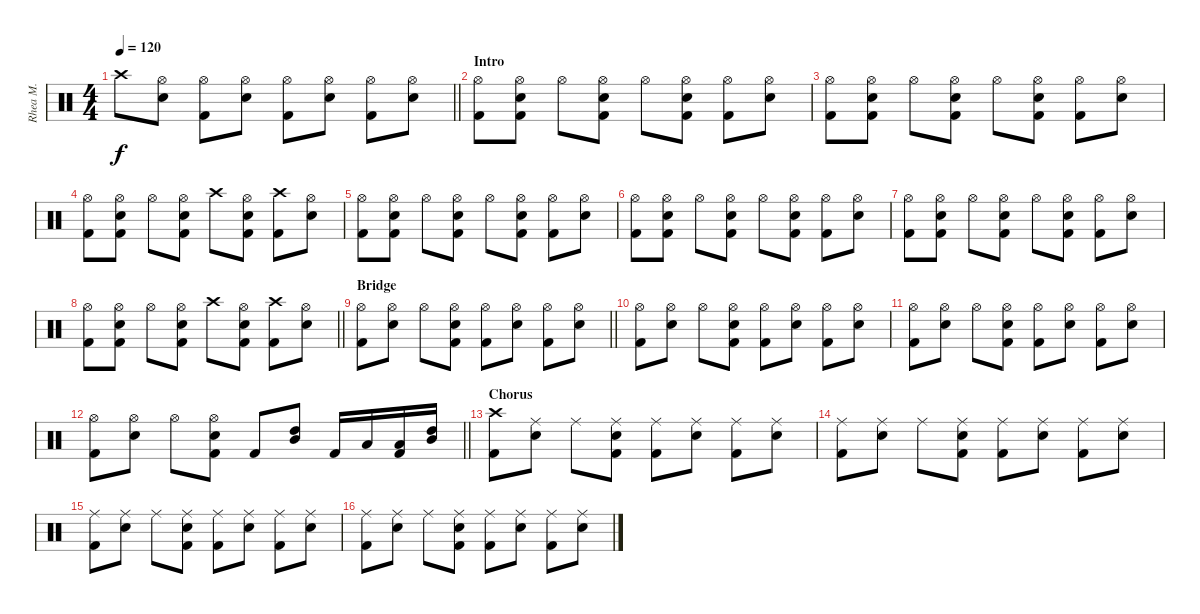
\track ("Rhea M." "Rhea M.") {instrument percussion}
\staff {score}
\articulation defaults
\ts (4 4)
\tempo 120
\clef neutral
\barLineRight lightlight
\ks c "Crash high (hit)".8{dy f}
("Hi-Hat (open)" "Electric Snare (hit)").8 ("Hi-Hat (open)" "Kick (hit) 2").8 ("Hi-Hat (open)" "Electric Snare (hit)").8 ("Hi-Hat (open)" "Kick (hit) 2").8 ("Hi-Hat (open)" "Electric Snare (hit)").8 ("Hi-Hat (open)" "Kick (hit) 2").8 ("Hi-Hat (open)" "Electric Snare (hit)").8 |
\section ("" "Intro")
("Hi-Hat (open)" "Kick (hit) 2").8 ("Hi-Hat (open)" "Electric Snare (hit)" "Kick (hit) 2").8 "Hi-Hat (open)".8 ("Hi-Hat (open)" "Electric Snare (hit)" "Kick (hit) 2").8 "Hi-Hat (open)".8 ("Hi-Hat (open)" "Electric Snare (hit)" "Kick (hit) 2").8 ("Hi-Hat (open)" "Kick (hit) 2").8 ("Hi-Hat (open)" "Electric Snare (hit)").8 |
("Hi-Hat (open)" "Kick (hit) 2").8 ("Hi-Hat (open)" "Electric Snare (hit)" "Kick (hit) 2").8 "Hi-Hat (open)".8 ("Hi-Hat (open)" "Electric Snare (hit)" "Kick (hit) 2").8 "Hi-Hat (open)".8 ("Hi-Hat (open)" "Electric Snare (hit)" "Kick (hit) 2").8 ("Hi-Hat (open)" "Kick (hit) 2").8 ("Hi-Hat (open)" "Electric Snare (hit)").8 |
("Hi-Hat (open)" "Kick (hit) 2").8 ("Hi-Hat (open)" "Electric Snare (hit)" "Kick (hit) 2").8 "Hi-Hat (open)".8 ("Hi-Hat (open)" "Electric Snare (hit)" "Kick (hit) 2").8 "Crash high (hit)".8 ("Hi-Hat (open)" "Electric Snare (hit)" "Kick (hit) 2").8 ("Crash high (hit)" "Kick (hit) 2").8 ("Hi-Hat (open)" "Electric Snare (hit)").8 |
("Hi-Hat (open)" "Kick (hit) 2").8 ("Hi-Hat (open)" "Electric Snare (hit)" "Kick (hit) 2").8 "Hi-Hat (open)".8 ("Hi-Hat (open)" "Electric Snare (hit)" "Kick (hit) 2").8 "Hi-Hat (open)".8 ("Hi-Hat (open)" "Electric Snare (hit)" "Kick (hit) 2").8 ("Hi-Hat (open)" "Kick (hit) 2").8 ("Hi-Hat (open)" "Electric Snare (hit)").8 |
("Hi-Hat (open)" "Kick (hit) 2").8 ("Hi-Hat (open)" "Electric Snare (hit)" "Kick (hit) 2").8 "Hi-Hat (open)".8 ("Hi-Hat (open)" "Electric Snare (hit)" "Kick (hit) 2").8 "Hi-Hat (open)".8 ("Hi-Hat (open)" "Electric Snare (hit)" "Kick (hit) 2").8 ("Hi-Hat (open)" "Kick (hit) 2").8 ("Hi-Hat (open)" "Electric Snare (hit)").8 |
("Hi-Hat (open)" "Kick (hit) 2").8 ("Hi-Hat (open)" "Electric Snare (hit)" "Kick (hit) 2").8 "Hi-Hat (open)".8 ("Hi-Hat (open)" "Electric Snare (hit)" "Kick (hit) 2").8 "Hi-Hat (open)".8 ("Hi-Hat (open)" "Electric Snare (hit)" "Kick (hit) 2").8 ("Hi-Hat (open)" "Kick (hit) 2").8 ("Hi-Hat (open)" "Electric Snare (hit)").8 |
\barLineRight lightlight
("Hi-Hat (open)" "Kick (hit) 2").8 ("Hi-Hat (open)" "Electric Snare (hit)" "Kick (hit) 2").8 "Hi-Hat (open)".8 ("Hi-Hat (open)" "Electric Snare (hit)" "Kick (hit) 2").8 "Crash high (hit)".8 ("Hi-Hat (open)" "Electric Snare (hit)" "Kick (hit) 2").8 ("Crash high (hit)" "Kick (hit) 2").8 ("Hi-Hat (open)" "Electric Snare (hit)").8 |
\section ("" "Bridge")
\barLineRight lightlight
("Hi-Hat (open)" "Kick (hit) 2").8 ("Hi-Hat (open)" "Electric Snare (hit)").8 "Hi-Hat (open)".8 ("Hi-Hat (open)" "Electric Snare (hit)" "Kick (hit) 2").8 ("Hi-Hat (open)" "Kick (hit) 2").8 ("Hi-Hat (open)" "Electric Snare (hit)").8 ("Hi-Hat (open)" "Kick (hit) 2").8 ("Hi-Hat (open)" "Electric Snare (hit)").8 |
("Hi-Hat (open)" "Kick (hit) 2").8 ("Hi-Hat (open)" "Electric Snare (hit)").8 "Hi-Hat (open)".8 ("Hi-Hat (open)" "Electric Snare (hit)" "Kick (hit) 2").8 ("Hi-Hat (open)" "Kick (hit) 2").8 ("Hi-Hat (open)" "Electric Snare (hit)").8 ("Hi-Hat (open)" "Kick (hit) 2").8 ("Hi-Hat (open)" "Electric Snare (hit)").8 |
("Hi-Hat (open)" "Kick (hit) 2").8 ("Hi-Hat (open)" "Electric Snare (hit)").8 "Hi-Hat (open)".8 ("Hi-Hat (open)" "Electric Snare (hit)" "Kick (hit) 2").8 ("Hi-Hat (open)" "Kick (hit) 2").8 ("Hi-Hat (open)" "Electric Snare (hit)").8 ("Hi-Hat (open)" "Kick (hit) 2").8 ("Hi-Hat (open)" "Electric Snare (hit)").8 |
\barLineRight lightlight
("Hi-Hat (open)" "Kick (hit) 2").8 ("Hi-Hat (open)" "Electric Snare (hit)").8 "Hi-Hat (open)".8 ("Hi-Hat (open)" "Electric Snare (hit)" "Kick (hit) 2").8 "Kick (hit) 2".8 ("Mid Tom (hit)" "High Tom (hit)").8 "Kick (hit) 2".16 "Low Tom (hit)".16 ("Low Floor Tom (hit)" "Kick (hit) 2").16 ("High Tom (hit)" "Mid Tom (hit)").16 |
\section ("" "Chorus")
("Crash high (hit)" "Kick (hit) 2").8 ("Ride (middle)" "Electric Snare (hit)").8 "Ride (middle)".8 ("Ride (middle)" "Electric Snare (hit)" "Kick (hit) 2").8 ("Ride (middle)" "Kick (hit) 2").8 ("Ride (middle)" "Electric Snare (hit)").8 ("Ride (middle)" "Kick (hit) 2").8 ("Ride (middle)" "Electric Snare (hit)").8 |
("Ride (middle)" "Kick (hit) 2").8 ("Ride (middle)" "Electric Snare (hit)").8 "Ride (middle)".8 ("Ride (middle)" "Electric Snare (hit)" "Kick (hit) 2").8 ("Ride (middle)" "Kick (hit) 2").8 ("Ride (middle)" "Electric Snare (hit)").8 ("Ride (middle)" "Kick (hit) 2").8 ("Ride (middle)" "Electric Snare (hit)").8 |
("Ride (middle)" "Kick (hit) 2").8 ("Ride (middle)" "Electric Snare (hit)").8 "Ride (middle)".8 ("Ride (middle)" "Electric Snare (hit)" "Kick (hit) 2").8 ("Ride (middle)" "Kick (hit) 2").8 ("Ride (middle)" "Electric Snare (hit)").8 ("Ride (middle)" "Kick (hit) 2").8 ("Ride (middle)" "Electric Snare (hit)").8 |
("Ride (middle)" "Kick (hit) 2").8 ("Ride (middle)" "Electric Snare (hit)").8 "Ride (middle)".8 ("Ride (middle)" "Electric Snare (hit)" "Kick (hit) 2").8 ("Ride (middle)" "Kick (hit) 2").8 ("Ride (middle)" "Electric Snare (hit)").8 ("Ride (middle)" "Kick (hit) 2").8 ("Ride (middle)" "Electric Snare (hit)").8
